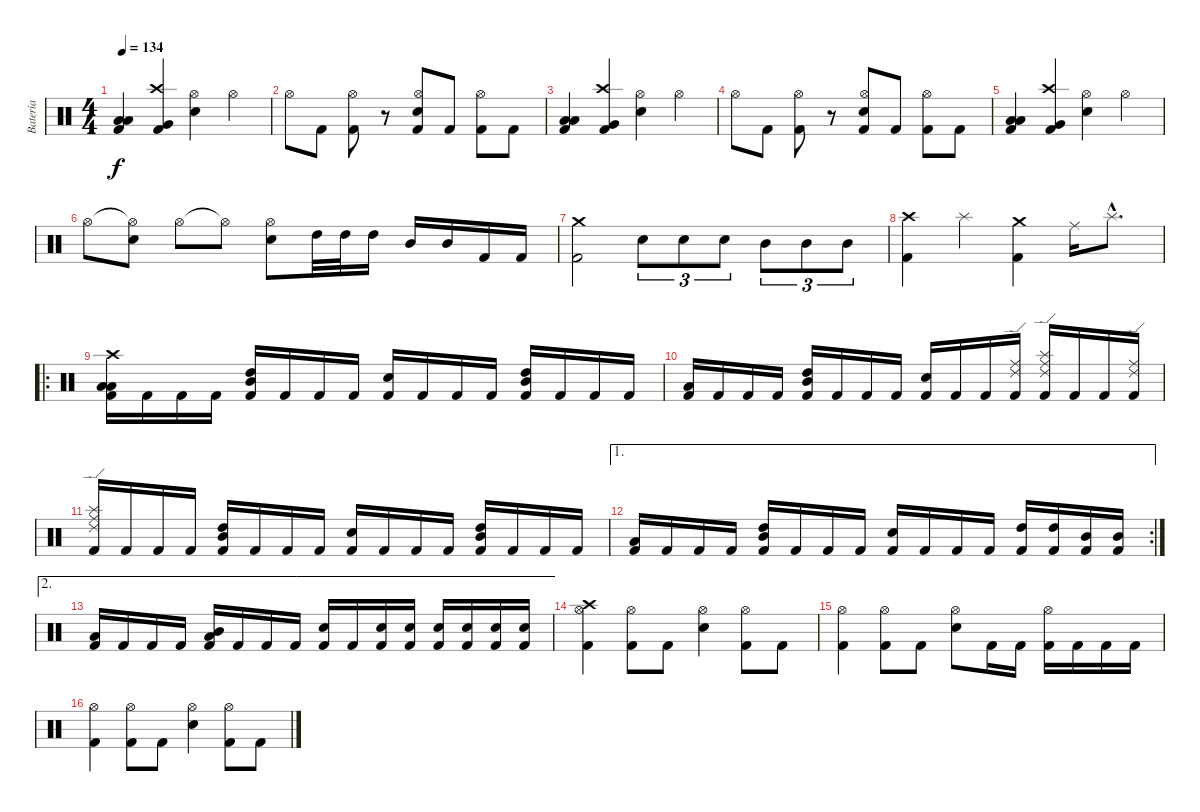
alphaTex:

\track ("Batería" "Batería") {instrument percussion}
\staff {score}
\articulation defaults
\ts (4 4)
\tempo 134
\clef neutral
\ks c
("Low Tom (hit)" "Low Floor Tom (hit)" "Kick (hit) 2").4{dy f} ("Crash high (hit)" "Very Low Tom (hit)" "Kick (hit) 2").4 ("Hi-Hat (open)" "Electric Snare (hit)").4 "Hi-Hat (open)".4 |
"Hi-Hat (open)".8 "Kick (hit) 2".8 ("Hi-Hat (open)" "Kick (hit) 2").8 r.8 ("Hi-Hat (open)" "Electric Snare (hit)" "Kick (hit) 2").8 "Kick (hit) 2".8 ("Hi-Hat (open)" "Kick (hit) 2").8 "Kick (hit) 2".8 |
("Low Tom (hit)" "Low Floor Tom (hit)" "Kick (hit) 2").4 ("Crash high (hit)" "Very Low Tom (hit)" "Kick (hit) 2").4 ("Hi-Hat (open)" "Electric Snare (hit)").4 "Hi-Hat (open)".4 |
"Hi-Hat (open)".8 "Kick (hit) 2".8 ("Hi-Hat (open)" "Kick (hit) 2").8 r.8 ("Hi-Hat (open)" "Electric Snare (hit)" "Kick (hit) 2").8 "Kick (hit) 2".8 ("Hi-Hat (open)" "Kick (hit) 2").8 "Kick (hit) 2".8 |
("Low Tom (hit)" "Low Floor Tom (hit)" "Kick (hit) 2").4 ("Crash high (hit)" "Very Low Tom (hit)" "Kick (hit) 2").4 ("Hi-Hat (open)" "Electric Snare (hit)").4 "Hi-Hat (open)".4 |
"Hi-Hat (open)".8 ("Hi-Hat (open)"{t} "Electric Snare (hit)").8 "Hi-Hat (open)".8 "Hi-Hat (open)"{t}.8 ("Hi-Hat (open)" "Electric Snare (hit)").8 "High Tom (hit)".32 "High Tom (hit)".32 "High Tom (hit)".16 "Mid Tom (hit)".16 "Mid Tom (hit)".16 "Kick (hit) 2".16 "Kick (hit) 2".16 |
("Crash medium (hit)" "Kick (hit) 2").2 "Electric Snare (hit)".8{tu (3 2)} "Electric Snare (hit)".8{tu (3 2)} "Electric Snare (hit)".8{tu (3 2)} "Mid Tom (hit)".8{tu (3 2)} "Mid Tom (hit)".8{tu (3 2)} "Mid Tom (hit)".8{tu (3 2)} |
("Crash high (hit)" "Kick (hit) 2").4 "Splash (hit)".4 ("Crash medium (hit)" "Kick (hit) 2").4 "Ride (middle)".16 "Splash (hit)"{hac}.8{d} |
\ro
("Crash high (hit)" "Low Tom (hit)" "Low Tom (hit)" "Kick (hit) 2").16 "Kick (hit) 2".16 "Kick (hit) 2".16 "Kick (hit) 2".16 ("High Tom (hit)" "Mid Tom (hit)" "Kick (hit) 2").16 "Kick (hit) 2".16 "Kick (hit) 2".16 "Kick (hit) 2".16 ("Electric Snare (hit)" "Kick (hit) 2").16 "Kick (hit) 2".16 "Kick (hit) 2".16 "Kick (hit) 2".16 ("High Tom (hit)" "Mid Tom (hit)" "Kick (hit) 2").16 "Kick (hit) 2".16 "Kick (hit) 2".16 "Kick (hit) 2".16 |
("Low Tom (hit)" "Kick (hit) 2").16 "Kick (hit) 2".16 "Kick (hit) 2".16 "Kick (hit) 2".16 ("High Tom (hit)" "Mid Tom (hit)" "Kick (hit) 2").16 "Kick (hit) 2".16 "Kick (hit) 2".16 "Kick (hit) 2".16 ("Electric Snare (hit)" "Kick (hit) 2").16 "Kick (hit) 2".16 "Kick (hit) 2".16 ("Ride (edge) 2" "Ride (middle)" "Kick (hit) 2").16 ("Ride (edge) 2" "Ride (middle)" "Splash (hit)" "Kick (hit) 2").16 "Kick (hit) 2".16 "Kick (hit) 2".16 ("Ride (edge) 2" "Ride (middle)" "Kick (hit) 2").16 |
("Ride (edge) 2" "Ride (middle)" "Splash (hit)" "Kick (hit) 2").16 "Kick (hit) 2".16 "Kick (hit) 2".16 "Kick (hit) 2".16 ("High Tom (hit)" "Mid Tom (hit)" "Kick (hit) 2").16 "Kick (hit) 2".16 "Kick (hit) 2".16 "Kick (hit) 2".16 ("Electric Snare (hit)" "Kick (hit) 2").16 "Kick (hit) 2".16 "Kick (hit) 2".16 "Kick (hit) 2".16 ("High Tom (hit)" "Mid Tom (hit)" "Kick (hit) 2").16 "Kick (hit) 2".16 "Kick (hit) 2".16 "Kick (hit) 2".16 |
\ae 1
\rc 2
("Low Tom (hit)" "Kick (hit) 2").16 "Kick (hit) 2".16 "Kick (hit) 2".16 "Kick (hit) 2".16 ("High Tom (hit)" "Mid Tom (hit)" "Kick (hit) 2").16 "Kick (hit) 2".16 "Kick (hit) 2".16 "Kick (hit) 2".16 ("Electric Snare (hit)" "Kick (hit) 2").16 "Kick (hit) 2".16 "Kick (hit) 2".16 "Kick (hit) 2".16 ("High Tom (hit)" "Kick (hit) 2").16 ("High Tom (hit)" "Kick (hit) 2").16 ("Mid Tom (hit)" "Kick (hit) 2").16 ("Mid Tom (hit)" "Kick (hit) 2").16 |
\ae 2
("Low Tom (hit)" "Kick (hit) 2").16 "Kick (hit) 2".16 "Kick (hit) 2".16 "Kick (hit) 2".16 ("Mid Tom (hit)" "Low Tom (hit)" "Kick (hit) 2").16 "Kick (hit) 2".16 "Kick (hit) 2".16 "Kick (hit) 2".16 ("Electric Snare (hit)" "Kick (hit) 2").16 "Kick (hit) 2".16 ("Electric Snare (hit)" "Kick (hit) 2").16 ("Electric Snare (hit)" "Kick (hit) 2").16 ("Electric Snare (hit)" "Kick (hit) 2").16 ("Electric Snare (hit)" "Kick (hit) 2").16 ("Electric Snare (hit)" "Kick (hit) 2").16 ("Electric Snare (hit)" "Kick (hit) 2").16 |
("Crash high (hit)" "Hi-Hat (open)" "Kick (hit) 2").4 ("Hi-Hat (open)" "Kick (hit) 2").8 "Kick (hit) 2".8 ("Electric Snare (hit)" "Hi-Hat (open)").4 ("Hi-Hat (open)" "Kick (hit) 2").8 "Kick (hit) 2".8 |
("Hi-Hat (open)" "Kick (hit) 2").4 ("Hi-Hat (open)" "Kick (hit) 2").8 "Kick (hit) 2".8 ("Electric Snare (hit)" "Hi-Hat (open)").8 "Kick (hit) 2".16 "Kick (hit) 2".16 ("Hi-Hat (open)" "Kick (hit) 2").16 "Kick (hit) 2".16 "Kick (hit) 2".16 "Kick (hit) 2".16 |
("Hi-Hat (open)" "Kick (hit) 2").4 ("Hi-Hat (open)" "Kick (hit) 2").8 "Kick (hit) 2".8 ("Electric Snare (hit)" "Hi-Hat (open)").4 ("Hi-Hat (open)" "Kick (hit) 2").8 "Kick (hit) 2".8
